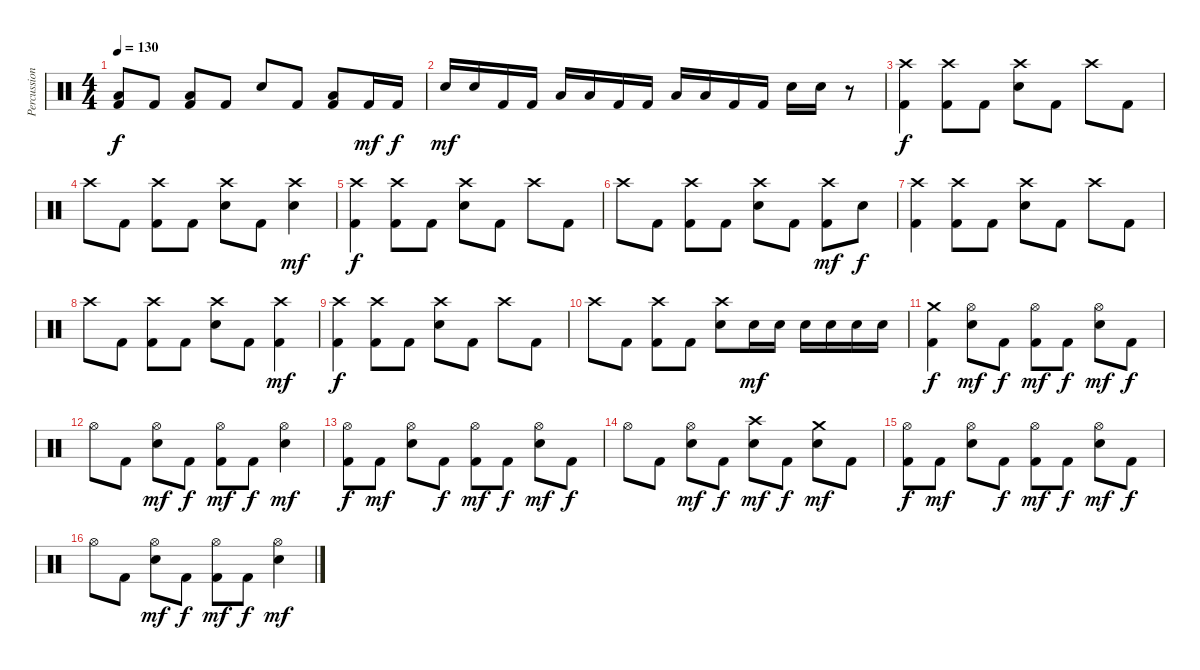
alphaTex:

\track ("Percussion" "Percussion") {instrument percussion}
\staff {score}
\articulation defaults
\ts (4 4)
\tempo 130
\clef neutral
\ks c
("Low Floor Tom (hit)" "Kick (hit) 2").8{dy f} "Kick (hit) 2".8 ("Low Floor Tom (hit)" "Kick (hit) 2").8 "Kick (hit) 2".8 "Electric Snare (hit)".8 "Kick (hit) 2".8 ("Low Tom (hit)" "Kick (hit) 2").8 "Kick (hit) 2".16{dy mf} "Kick (hit) 2".16{dy f} |
"Electric Snare (hit)".16{dy mf} "Electric Snare (hit)".16 "Kick (hit) 2".16 "Kick (hit) 2".16 "Low Tom (hit)".16 "Low Tom (hit)".16 "Kick (hit) 2".16 "Kick (hit) 2".16 "Low Floor Tom (hit)".16 "Low Floor Tom (hit)".16 "Kick (hit) 2".16 "Kick (hit) 2".16 "Electric Snare (hit)".16 "Electric Snare (hit)".16 r.8 |
("Crash high (hit)" "Kick (hit) 2").4{dy f} ("Crash high (hit)" "Kick (hit) 2").8 "Kick (hit) 2".8 ("Crash high (hit)" "Electric Snare (hit)").8 "Kick (hit) 2".8 "Crash high (hit)".8 "Kick (hit) 2".8 |
"Crash high (hit)".8 "Kick (hit) 2".8 ("Crash high (hit)" "Kick (hit) 2").8 "Kick (hit) 2".8 ("Crash high (hit)" "Electric Snare (hit)").8 "Kick (hit) 2".8 ("Crash high (hit)" "Electric Snare (hit)").4{dy mf} |
("Crash high (hit)" "Kick (hit) 2").4{dy f} ("Crash high (hit)" "Kick (hit) 2").8 "Kick (hit) 2".8 ("Crash high (hit)" "Electric Snare (hit)").8 "Kick (hit) 2".8 "Crash high (hit)".8 "Kick (hit) 2".8 |
"Crash high (hit)".8 "Kick (hit) 2".8 ("Crash high (hit)" "Kick (hit) 2").8 "Kick (hit) 2".8 ("Crash high (hit)" "Electric Snare (hit)").8 "Kick (hit) 2".8 ("Crash high (hit)" "Kick (hit) 2").8{dy mf} "Electric Snare (hit)".8{dy f} |
("Crash high (hit)" "Kick (hit) 2").4 ("Crash high (hit)" "Kick (hit) 2").8 "Kick (hit) 2".8 ("Crash high (hit)" "Electric Snare (hit)").8 "Kick (hit) 2".8 "Crash high (hit)".8 "Kick (hit) 2".8 |
"Crash high (hit)".8 "Kick (hit) 2".8 ("Crash high (hit)" "Kick (hit) 2").8 "Kick (hit) 2".8 ("Crash high (hit)" "Electric Snare (hit)").8 "Kick (hit) 2".8 ("Crash high (hit)" "Kick (hit) 2").4{dy mf} |
("Crash high (hit)" "Kick (hit) 2").4{dy f} ("Crash high (hit)" "Kick (hit) 2").8 "Kick (hit) 2".8 ("Crash high (hit)" "Electric Snare (hit)").8 "Kick (hit) 2".8 "Crash high (hit)".8 "Kick (hit) 2".8 |
"Crash high (hit)".8 "Kick (hit) 2".8 ("Crash high (hit)" "Kick (hit) 2").8 "Kick (hit) 2".8 ("Crash high (hit)" "Electric Snare (hit)").8 "Electric Snare (hit)".16{dy mf} "Electric Snare (hit)".16 "Electric Snare (hit)".16 "Electric Snare (hit)".16 "Electric Snare (hit)".16 "Electric Snare (hit)".16 |
("Crash medium (hit)" "Kick (hit) 2").4{dy f} ("Hi-Hat (open)" "Electric Snare (hit)").8{dy mf} "Kick (hit) 2".8{dy f} ("Hi-Hat (open)" "Kick (hit) 2").8{dy mf} "Kick (hit) 2".8{dy f} ("Hi-Hat (open)" "Electric Snare (hit)").8{dy mf} "Kick (hit) 2".8{dy f} |
"Hi-Hat (open)".8 "Kick (hit) 2".8 ("Hi-Hat (open)" "Electric Snare (hit)").8{dy mf} "Kick (hit) 2".8{dy f} ("Hi-Hat (open)" "Kick (hit) 2").8{dy mf} "Kick (hit) 2".8{dy f} ("Hi-Hat (open)" "Electric Snare (hit)").4{dy mf} |
("Hi-Hat (open)" "Kick (hit) 2").8{dy f} "Kick (hit) 2".8{dy mf} ("Hi-Hat (open)" "Electric Snare (hit)").8 "Kick (hit) 2".8{dy f} ("Hi-Hat (open)" "Kick (hit) 2").8{dy mf} "Kick (hit) 2".8{dy f} ("Hi-Hat (open)" "Electric Snare (hit)").8{dy mf} "Kick (hit) 2".8{dy f} |
"Hi-Hat (open)".8 "Kick (hit) 2".8 ("Hi-Hat (open)" "Electric Snare (hit)").8{dy mf} "Kick (hit) 2".8{dy f} ("Crash high (hit)" "Electric Snare (hit)").8{dy mf} "Kick (hit) 2".8{dy f} ("Crash medium (hit)" "Electric Snare (hit)").8{dy mf} "Kick (hit) 2".8 |
("Hi-Hat (open)" "Kick (hit) 2").8{dy f} "Kick (hit) 2".8{dy mf} ("Hi-Hat (open)" "Electric Snare (hit)").8 "Kick (hit) 2".8{dy f} ("Hi-Hat (open)" "Kick (hit) 2").8{dy mf} "Kick (hit) 2".8{dy f} ("Hi-Hat (open)" "Electric Snare (hit)").8{dy mf} "Kick (hit) 2".8{dy f} |
"Hi-Hat (open)".8 "Kick (hit) 2".8 ("Hi-Hat (open)" "Electric Snare (hit)").8{dy mf} "Kick (hit) 2".8{dy f} ("Hi-Hat (open)" "Kick (hit) 2").8{dy mf} "Kick (hit) 2".8{dy f} ("Hi-Hat (open)" "Electric Snare (hit)").4{dy mf}
